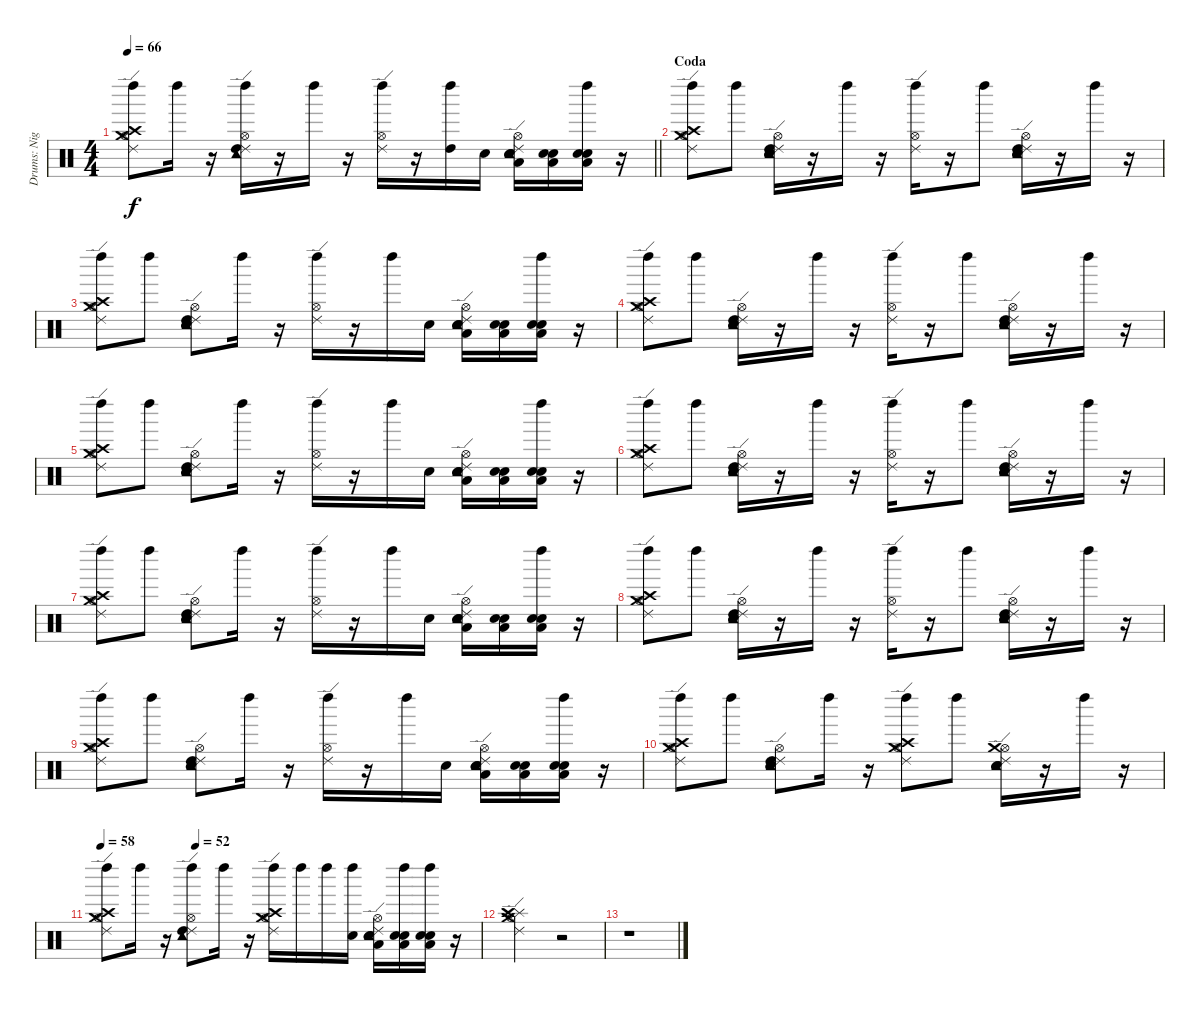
\track ("Drums: Nigel Olsson" "Drums: Nig") {instrument percussion}
\staff {score}
\articulation defaults
\ts (4 4)
\tempo 66
\clef neutral
\barLineRight lightlight
\ks c
("Hi-Hat (open)" "Ride (edge) 2" "Crash medium (hit)" "Crash high (hit)" "Left Maraca (hit)").8{dy f} "Left Maraca (hit)".16 r.16 ("Hi-Hat (open)" "Tambourine (hit)" "Ride (edge) 2" "High Tom (hit)" "Left Maraca (hit)").16 r.16 "Left Maraca (hit)".16 r.16 ("Hi-Hat (open)" "Ride (edge) 2" "Left Maraca (hit)").16 r.16 ("High Tom (hit)" "Left Maraca (hit)").16 "Electric Snare (hit)".16 ("Hi-Hat (open)" "Tambourine (hit)" "Snare (hit) 2" "Electric Snare (hit)" "Low Floor Tom (hit)" "Ride (edge) 2").16 ("Electric Snare (hit)" "Snare (hit) 2" "Low Floor Tom (hit)").16 ("Electric Snare (hit)" "Snare (hit) 2" "Low Floor Tom (hit)" "Left Maraca (hit)").16 r.16 |
\section ("" "Coda")
("Hi-Hat (open)" "Ride (edge) 2" "Crash medium (hit)" "Crash high (hit)" "Left Maraca (hit)").8 "Left Maraca (hit)".8 ("Hi-Hat (open)" "Electric Snare (hit)" "Snare (hit) 2" "Tambourine (hit)" "Ride (edge) 2" "High Tom (hit)").16 r.16 "Left Maraca (hit)".16 r.16 ("Hi-Hat (open)" "Ride (edge) 2" "Left Maraca (hit)").16 r.16 "Left Maraca (hit)".8 ("Hi-Hat (open)" "Tambourine (hit)" "Snare (hit) 2" "Electric Snare (hit)" "Ride (edge) 2" "High Tom (hit)").16 r.16 "Left Maraca (hit)".16 r.16 |
("Hi-Hat (open)" "Ride (edge) 2" "Crash medium (hit)" "Crash high (hit)" "Left Maraca (hit)").8 "Left Maraca (hit)".8 ("Hi-Hat (open)" "Tambourine (hit)" "Snare (hit) 2" "Electric Snare (hit)" "Ride (edge) 2" "High Tom (hit)").8 "Left Maraca (hit)".16 r.16 ("Hi-Hat (open)" "Ride (edge) 2" "Left Maraca (hit)").16 r.16 "Left Maraca (hit)".16 "Electric Snare (hit)".16 ("Hi-Hat (open)" "Tambourine (hit)" "Snare (hit) 2" "Electric Snare (hit)" "Low Floor Tom (hit)" "Ride (edge) 2").16 ("Electric Snare (hit)" "Snare (hit) 2" "Low Floor Tom (hit)").16 ("Electric Snare (hit)" "Snare (hit) 2" "Low Floor Tom (hit)" "Left Maraca (hit)").16 r.16 |
("Hi-Hat (open)" "Crash medium (hit)" "Ride (edge) 2" "Crash high (hit)" "Left Maraca (hit)").8 "Left Maraca (hit)".8 ("Hi-Hat (open)" "Electric Snare (hit)" "Snare (hit) 2" "Tambourine (hit)" "Ride (edge) 2" "High Tom (hit)").16 r.16 "Left Maraca (hit)".16 r.16 ("Hi-Hat (open)" "Ride (edge) 2" "Left Maraca (hit)").16 r.16 "Left Maraca (hit)".8 ("Hi-Hat (open)" "Tambourine (hit)" "Snare (hit) 2" "Electric Snare (hit)" "Ride (edge) 2" "High Tom (hit)").16 r.16 "Left Maraca (hit)".16 r.16 |
("Hi-Hat (open)" "Ride (edge) 2" "Crash medium (hit)" "Crash high (hit)" "Left Maraca (hit)").8 "Left Maraca (hit)".8 ("Hi-Hat (open)" "Tambourine (hit)" "Snare (hit) 2" "Electric Snare (hit)" "Ride (edge) 2" "High Tom (hit)").8 "Left Maraca (hit)".16 r.16 ("Hi-Hat (open)" "Ride (edge) 2" "Left Maraca (hit)").16 r.16 "Left Maraca (hit)".16 "Electric Snare (hit)".16 ("Hi-Hat (open)" "Tambourine (hit)" "Snare (hit) 2" "Electric Snare (hit)" "Low Floor Tom (hit)" "Ride (edge) 2").16 ("Electric Snare (hit)" "Snare (hit) 2" "Low Floor Tom (hit)").16 ("Electric Snare (hit)" "Snare (hit) 2" "Low Floor Tom (hit)" "Left Maraca (hit)").16 r.16 |
("Hi-Hat (open)" "Crash medium (hit)" "Ride (edge) 2" "Crash high (hit)" "Left Maraca (hit)").8 "Left Maraca (hit)".8 ("Hi-Hat (open)" "Electric Snare (hit)" "Snare (hit) 2" "Tambourine (hit)" "Ride (edge) 2" "High Tom (hit)").16 r.16 "Left Maraca (hit)".16 r.16 ("Hi-Hat (open)" "Ride (edge) 2" "Left Maraca (hit)").16 r.16 "Left Maraca (hit)".8 ("Hi-Hat (open)" "Tambourine (hit)" "Snare (hit) 2" "Electric Snare (hit)" "Ride (edge) 2" "High Tom (hit)").16 r.16 "Left Maraca (hit)".16 r.16 |
("Hi-Hat (open)" "Ride (edge) 2" "Crash medium (hit)" "Crash high (hit)" "Left Maraca (hit)").8 "Left Maraca (hit)".8 ("Hi-Hat (open)" "Tambourine (hit)" "Snare (hit) 2" "Electric Snare (hit)" "Ride (edge) 2" "High Tom (hit)").8 "Left Maraca (hit)".16 r.16 ("Hi-Hat (open)" "Ride (edge) 2" "Left Maraca (hit)").16 r.16 "Left Maraca (hit)".16 "Electric Snare (hit)".16 ("Hi-Hat (open)" "Tambourine (hit)" "Snare (hit) 2" "Electric Snare (hit)" "Low Floor Tom (hit)" "Ride (edge) 2").16 ("Electric Snare (hit)" "Snare (hit) 2" "Low Floor Tom (hit)").16 ("Electric Snare (hit)" "Snare (hit) 2" "Low Floor Tom (hit)" "Left Maraca (hit)").16 r.16 |
("Hi-Hat (open)" "Crash medium (hit)" "Ride (edge) 2" "Crash high (hit)" "Left Maraca (hit)").8 "Left Maraca (hit)".8 ("Hi-Hat (open)" "Electric Snare (hit)" "Snare (hit) 2" "Tambourine (hit)" "Ride (edge) 2" "High Tom (hit)").16 r.16 "Left Maraca (hit)".16 r.16 ("Hi-Hat (open)" "Ride (edge) 2" "Left Maraca (hit)").16 r.16 "Left Maraca (hit)".8 ("Hi-Hat (open)" "Tambourine (hit)" "Snare (hit) 2" "Electric Snare (hit)" "Ride (edge) 2" "High Tom (hit)").16 r.16 "Left Maraca (hit)".16 r.16 |
("Hi-Hat (open)" "Ride (edge) 2" "Crash medium (hit)" "Crash high (hit)" "Left Maraca (hit)").8 "Left Maraca (hit)".8 ("Hi-Hat (open)" "Tambourine (hit)" "Snare (hit) 2" "Electric Snare (hit)" "Ride (edge) 2" "High Tom (hit)").8 "Left Maraca (hit)".16 r.16 ("Hi-Hat (open)" "Ride (edge) 2" "Left Maraca (hit)").16 r.16 "Left Maraca (hit)".16 "Electric Snare (hit)".16 ("Hi-Hat (open)" "Tambourine (hit)" "Snare (hit) 2" "Electric Snare (hit)" "Low Floor Tom (hit)" "Ride (edge) 2").16 ("Electric Snare (hit)" "Snare (hit) 2" "Low Floor Tom (hit)").16 ("Electric Snare (hit)" "Snare (hit) 2" "Low Floor Tom (hit)" "Left Maraca (hit)").16 r.16 |
("Hi-Hat (open)" "Crash medium (hit)" "Ride (edge) 2" "Crash high (hit)" "Left Maraca (hit)").8 "Left Maraca (hit)".8 ("Hi-Hat (open)" "Electric Snare (hit)" "Snare (hit) 2" "Tambourine (hit)" "Ride (edge) 2" "High Tom (hit)").8 "Left Maraca (hit)".16 r.16 ("Hi-Hat (open)" "Ride (edge) 2" "Crash medium (hit)" "Crash high (hit)" "Left Maraca (hit)").8 "Left Maraca (hit)".8 ("Hi-Hat (open)" "Tambourine (hit)" "Snare (hit) 2" "Electric Snare (hit)" "Ride (edge) 2" "Crash medium (hit)").16 r.16 "Left Maraca (hit)".16 r.16 |
\tempo 58
\tempo (52 0.25)
("Hi-Hat (open)" "Ride (edge) 2" "Crash medium (hit)" "Crash high (hit)" "Left Maraca (hit)").8 "Left Maraca (hit)".16 r.16 ("Hi-Hat (open)" "Tambourine (hit)" "Ride (edge) 2" "High Tom (hit)" "Left Maraca (hit)").8 "Left Maraca (hit)".16 r.16 ("Hi-Hat (open)" "Ride (edge) 2" "Crash medium (hit)" "Crash high (hit)" "Left Maraca (hit)").16 "Left Maraca (hit)".16 "Left Maraca (hit)".16 ("Electric Snare (hit)" "Left Maraca (hit)").16 ("Hi-Hat (open)" "Tambourine (hit)" "Snare (hit) 2" "Electric Snare (hit)" "Low Floor Tom (hit)" "Ride (edge) 2").16 ("Electric Snare (hit)" "Snare (hit) 2" "Low Floor Tom (hit)" "Left Maraca (hit)").16 ("Electric Snare (hit)" "Snare (hit) 2" "Low Floor Tom (hit)" "Left Maraca (hit)").16 r.16 |
("Crash medium (hit)" "Ride (edge) 2" "Hi-Hat (open)" "Splash (hit)" "Crash high (hit)").2 r.2 |
r.1
